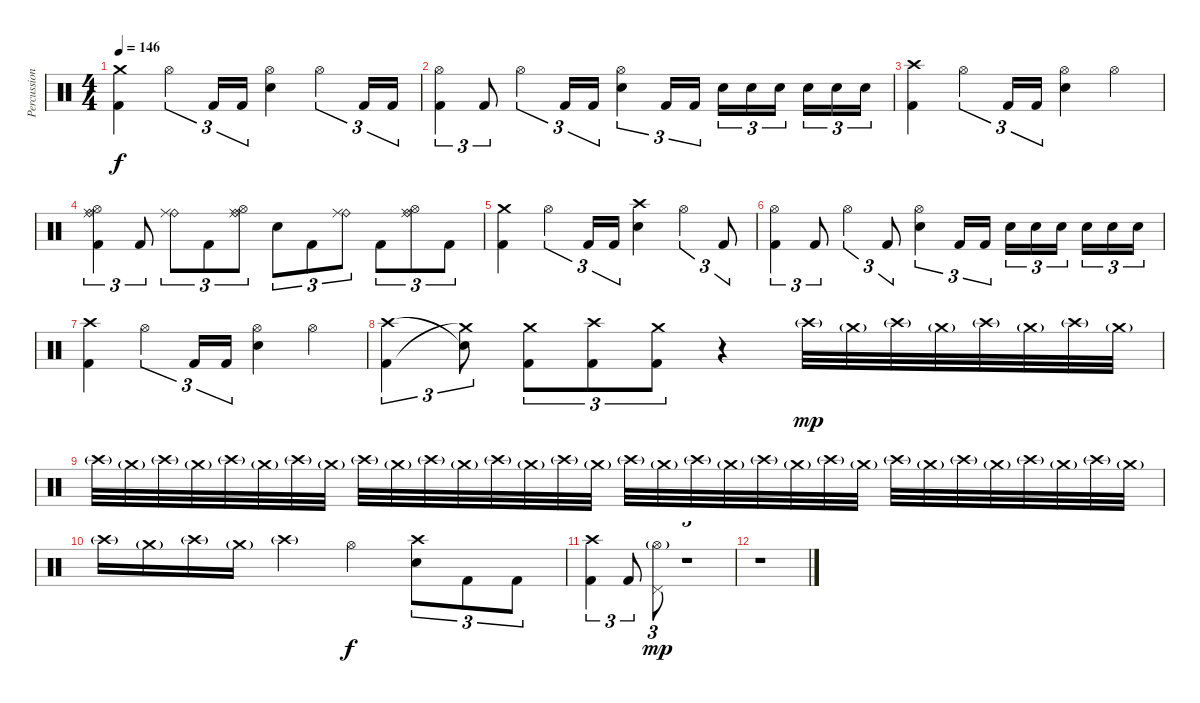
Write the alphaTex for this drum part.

\track ("Percussion" "Percussion") {instrument percussion}
\staff {score}
\articulation defaults
\ts (4 4)
\tempo 146
\clef neutral
\ks c
("Crash medium (hit)" "Kick (hit) 2").4{dy f} "Hi-Hat (open)".4{tu (3 2)} "Kick (hit) 2".16{tu (3 2)} "Kick (hit) 2".16{tu (3 2)} ("Hi-Hat (open)" "Snare (hit) 2").4 "Hi-Hat (open)".4{tu (3 2)} "Kick (hit) 2".16{tu (3 2)} "Kick (hit) 2".16{tu (3 2)} |
("Hi-Hat (open)" "Kick (hit) 2").4{tu (3 2)} "Kick (hit) 2".8{tu (3 2)} "Hi-Hat (open)".4{tu (3 2)} "Kick (hit) 2".16{tu (3 2)} "Kick (hit) 2".16{tu (3 2)} ("Hi-Hat (open)" "Snare (hit) 2").4{tu (3 2)} "Kick (hit) 2".16{tu (3 2)} "Kick (hit) 2".16{tu (3 2)} "Snare (hit) 2".16{tu (3 2)} "Snare (hit) 2".16{tu (3 2)} "Snare (hit) 2".16{tu (3 2) beam splitsecondary} "Snare (hit) 2".16{tu (3 2)} "Snare (hit) 2".16{tu (3 2)} "Snare (hit) 2".16{tu (3 2)} |
("Crash high (hit)" "Kick (hit) 2").4 "Hi-Hat (open)".4{tu (3 2)} "Kick (hit) 2".16{tu (3 2)} "Kick (hit) 2".16{tu (3 2)} ("Hi-Hat (open)" "Snare (hit) 2").4 "Hi-Hat (open)".4 |
("Ride (bell)" "Ride (middle)" "Hi-Hat (open)" "Kick (hit) 2").4{tu (3 2)} "Kick (hit) 2".8{tu (3 2)} ("Ride (bell)" "Ride (middle)").8{tu (3 2)} "Kick (hit) 2".8{tu (3 2)} ("Ride (bell)" "Ride (middle)" "Hi-Hat (open)").8{tu (3 2)} "Snare (hit) 2".8{tu (3 2)} "Kick (hit) 2".8{tu (3 2)} ("Ride (bell)" "Ride (middle)").8{tu (3 2)} "Kick (hit) 2".8{tu (3 2)} ("Ride (middle)" "Ride (bell)" "Hi-Hat (open)").8{tu (3 2)} "Kick (hit) 2".8{tu (3 2)} |
("Crash medium (hit)" "Kick (hit) 2").4 "Hi-Hat (open)".4{tu (3 2)} "Kick (hit) 2".16{tu (3 2)} "Kick (hit) 2".16{tu (3 2)} ("Crash high (hit)" "Snare (hit) 2").4 "Hi-Hat (open)".4{tu (3 2)} "Kick (hit) 2".8{tu (3 2)} |
("Hi-Hat (open)" "Kick (hit) 2").4{tu (3 2)} "Kick (hit) 2".8{tu (3 2)} "Hi-Hat (open)".4{tu (3 2)} "Kick (hit) 2".8{tu (3 2)} ("Hi-Hat (open)" "Snare (hit) 2").4{tu (3 2)} "Kick (hit) 2".16{tu (3 2)} "Kick (hit) 2".16{tu (3 2)} "Snare (hit) 2".16{tu (3 2)} "Snare (hit) 2".16{tu (3 2)} "Snare (hit) 2".16{tu (3 2) beam splitsecondary} "Snare (hit) 2".16{tu (3 2)} "Snare (hit) 2".16{tu (3 2)} "Snare (hit) 2".16{tu (3 2)} |
("Crash high (hit)" "Kick (hit) 2").4 "Hi-Hat (open)".4{tu (3 2)} "Kick (hit) 2".16{tu (3 2)} "Kick (hit) 2".16{tu (3 2)} ("Hi-Hat (open)" "Snare (hit) 2").4 "Hi-Hat (open)".4 |
("Crash high (hit)" "Kick (hit) 2").4{tu (3 2)} ("Snare (hit)"{t} "Crash medium (hit)"{t}).8{tu (3 2)} ("Crash medium (hit)" "Kick (hit) 2").8{tu (3 2)} ("Crash high (hit)" "Kick (hit) 2").8{tu (3 2)} ("Crash medium (hit)" "Kick (hit) 2").8{tu (3 2)} r.4 "Crash high (hit)"{g}.32{dy mp} "Crash medium (hit)"{g}.32 "Crash high (hit)"{g}.32 "Crash medium (hit)"{g}.32 "Crash high (hit)"{g}.32 "Crash medium (hit)"{g}.32 "Crash high (hit)"{g}.32 "Crash medium (hit)"{g}.32 |
"Crash high (hit)"{g}.32 "Crash medium (hit)"{g}.32 "Crash high (hit)"{g}.32 "Crash medium (hit)"{g}.32 "Crash high (hit)"{g}.32 "Crash medium (hit)"{g}.32 "Crash high (hit)"{g}.32 "Crash medium (hit)"{g}.32 "Crash high (hit)"{g}.32 "Crash medium (hit)"{g}.32 "Crash high (hit)"{g}.32 "Crash medium (hit)"{g}.32 "Crash high (hit)"{g}.32 "Crash medium (hit)"{g}.32 "Crash high (hit)"{g}.32 "Crash medium (hit)"{g}.32 "Crash high (hit)"{g}.32 "Crash medium (hit)"{g}.32 "Crash high (hit)"{g}.32 "Crash medium (hit)"{g}.32 "Crash high (hit)"{g}.32 "Crash medium (hit)"{g}.32 "Crash high (hit)"{g}.32 "Crash medium (hit)"{g}.32 "Crash high (hit)"{g}.32 "Crash medium (hit)"{g}.32 "Crash high (hit)"{g}.32 "Crash medium (hit)"{g}.32 "Crash high (hit)"{g}.32 "Crash medium (hit)"{g}.32 "Crash high (hit)"{g}.32 "Crash medium (hit)"{g}.32 |
"Crash high (hit)"{g}.16 "Crash medium (hit)"{g}.16 "Crash high (hit)"{g}.16 "Crash medium (hit)"{g}.16 "Crash high (hit)"{g}.4 "Hi-Hat (open)".4{dy f} ("Crash high (hit)" "Snare (hit) 2").8{tu (3 2)} "Kick (hit) 2".8{tu (3 2)} "Kick (hit) 2".8{tu (3 2)} |
("Crash high (hit)" "Kick (hit) 2").4{tu (3 2)} "Kick (hit) 2".8{tu (3 2)} ("Pedal Hi-Hat (hit)" "Hi-Hat (open)"{g}).8{tu (3 2) dy mp} r.1{tu (3 2)} |
r.1
